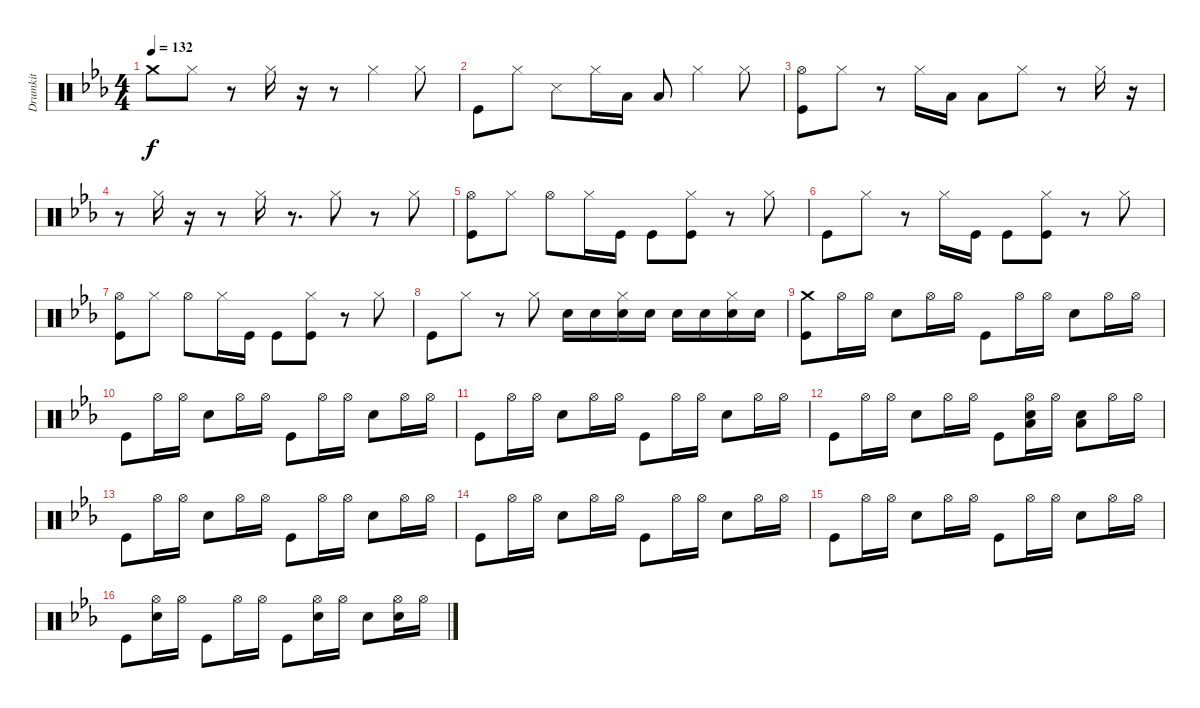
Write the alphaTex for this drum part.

\track ("Drumkit" "Drumkit") {instrument percussion}
\staff {score}
\articulation defaults
\ts (4 4)
\tempo 132
\clef neutral
\ks eb "Crash medium (hit)".8{dy f} "Hi-Hat (closed)".8
r.8 "Hi-Hat (closed)".16 r.16 r.8 "Hi-Hat (closed)".4 "Hi-Hat (closed)".8 |
"Kick (hit)".8 "Hi-Hat (closed)".8 "Snare (side stick) 3".8 "Hi-Hat (closed)".16 "Low Floor Tom (hit)".16 "Low Floor Tom (hit)".8 "Hi-Hat (closed)".4 "Hi-Hat (closed)".8 |
("Kick (hit)" "Hi-Hat (open)").8 "Hi-Hat (closed)".8 r.8 "Hi-Hat (closed)".16 "Low Floor Tom (hit)".16 "Low Floor Tom (hit)".8 "Hi-Hat (closed)".8 r.8 "Hi-Hat (closed)".16 r.16 |
r.8 "Hi-Hat (closed)".16 r.16 r.8 "Hi-Hat (closed)".16 r.8{d} "Hi-Hat (closed)".8 r.8 "Hi-Hat (closed)".8 |
("Kick (hit)" "Hi-Hat (open)").8 "Hi-Hat (closed)".8 "Hi-Hat (open)".8 "Hi-Hat (closed)".16 "Kick (hit)".16 "Kick (hit)".8 ("Hi-Hat (closed)" "Kick (hit)").8 r.8 "Hi-Hat (closed)".8 |
"Kick (hit)".8 "Hi-Hat (closed)".8 r.8 "Hi-Hat (closed)".16 "Kick (hit)".16 "Kick (hit)".8 ("Hi-Hat (closed)" "Kick (hit)").8 r.8 "Hi-Hat (closed)".8 |
("Kick (hit)" "Hi-Hat (open)").8 "Hi-Hat (closed)".8 "Hi-Hat (open)".8 "Hi-Hat (closed)".16 "Kick (hit)".16 "Kick (hit)".8 ("Hi-Hat (closed)" "Kick (hit)").8 r.8 "Hi-Hat (closed)".8 |
"Kick (hit)".8 "Hi-Hat (closed)".8 r.8 "Hi-Hat (closed)".8 "Snare (hit) 2".16 "Snare (hit) 2".16 ("Snare (hit) 2" "Hi-Hat (closed)").16 "Snare (hit) 2".16 "Snare (hit) 2".16 "Snare (hit) 2".16 ("Snare (hit) 2" "Hi-Hat (closed)").16 "Snare (hit) 2".16 |
("Kick (hit)" "Crash medium (hit)").8 "Hi-Hat (open)".16 "Hi-Hat (open)".16 "Snare (hit) 2".8 "Hi-Hat (open)".16 "Hi-Hat (open)".16 "Kick (hit)".8 "Hi-Hat (open)".16 "Hi-Hat (open)".16 "Snare (hit) 2".8 "Hi-Hat (open)".16 "Hi-Hat (open)".16 |
"Kick (hit)".8 "Hi-Hat (open)".16 "Hi-Hat (open)".16 "Snare (hit) 2".8 "Hi-Hat (open)".16 "Hi-Hat (open)".16 "Kick (hit)".8 "Hi-Hat (open)".16 "Hi-Hat (open)".16 "Snare (hit) 2".8 "Hi-Hat (open)".16 "Hi-Hat (open)".16 |
"Kick (hit)".8 "Hi-Hat (open)".16 "Hi-Hat (open)".16 "Snare (hit) 2".8 "Hi-Hat (open)".16 "Hi-Hat (open)".16 "Kick (hit)".8 "Hi-Hat (open)".16 "Hi-Hat (open)".16 "Snare (hit) 2".8 "Hi-Hat (open)".16 "Hi-Hat (open)".16 |
"Kick (hit)".8 "Hi-Hat (open)".16 "Hi-Hat (open)".16 "Snare (hit) 2".8 "Hi-Hat (open)".16 "Hi-Hat (open)".16 "Kick (hit)".8 ("Hi-Hat (open)" "Snare (hit) 2" "Low Floor Tom (hit)").16 "Hi-Hat (open)".16 ("Snare (hit) 2" "Low Floor Tom (hit)").8 "Hi-Hat (open)".16 "Hi-Hat (open)".16 |
"Kick (hit)".8 "Hi-Hat (open)".16 "Hi-Hat (open)".16 "Snare (hit) 2".8 "Hi-Hat (open)".16 "Hi-Hat (open)".16 "Kick (hit)".8 "Hi-Hat (open)".16 "Hi-Hat (open)".16 "Snare (hit) 2".8 "Hi-Hat (open)".16 "Hi-Hat (open)".16 |
"Kick (hit)".8 "Hi-Hat (open)".16 "Hi-Hat (open)".16 "Snare (hit) 2".8 "Hi-Hat (open)".16 "Hi-Hat (open)".16 "Kick (hit)".8 "Hi-Hat (open)".16 "Hi-Hat (open)".16 "Snare (hit) 2".8 "Hi-Hat (open)".16 "Hi-Hat (open)".16 |
"Kick (hit)".8 "Hi-Hat (open)".16 "Hi-Hat (open)".16 "Snare (hit) 2".8 "Hi-Hat (open)".16 "Hi-Hat (open)".16 "Kick (hit)".8 "Hi-Hat (open)".16 "Hi-Hat (open)".16 "Snare (hit) 2".8 "Hi-Hat (open)".16 "Hi-Hat (open)".16 |
"Kick (hit)".8 ("Hi-Hat (open)" "Snare (hit) 2").16 "Hi-Hat (open)".16 "Kick (hit)".8 "Hi-Hat (open)".16 "Hi-Hat (open)".16 "Kick (hit)".8 ("Hi-Hat (open)" "Snare (hit) 2").16 "Hi-Hat (open)".16 "Snare (hit) 2".8 ("Hi-Hat (open)" "Snare (hit) 2").16 "Hi-Hat (open)".16
